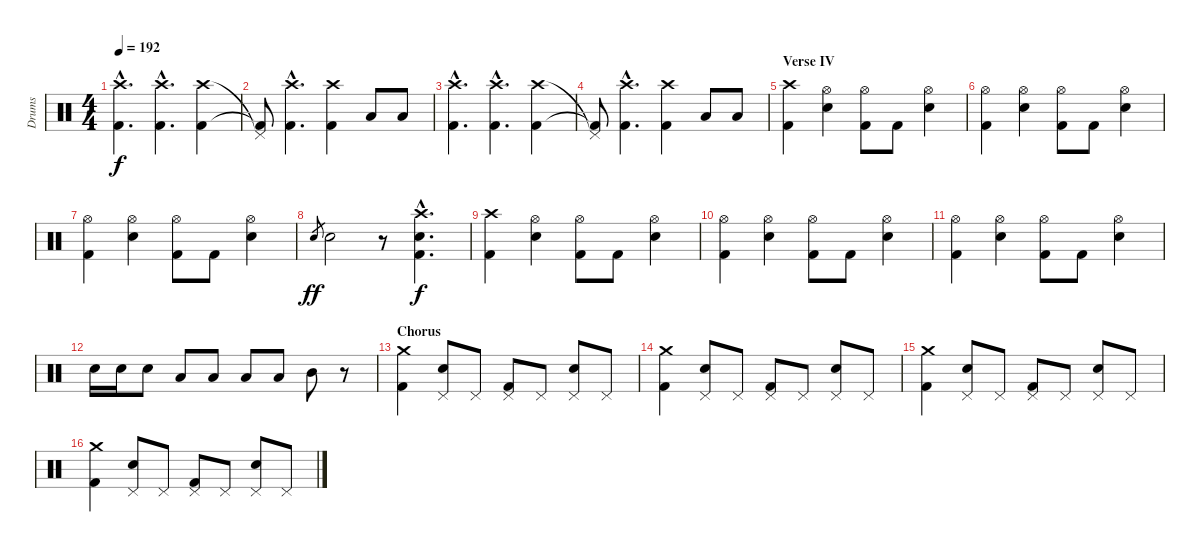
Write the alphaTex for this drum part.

\track ("Drums" "Drums") {instrument percussion}
\staff {score}
\articulation defaults
\ts (4 4)
\tempo 192
\clef neutral
\ks c
("Crash high (hit)"{hac} "Kick (hit) 2"{hac}).4{d dy f} ("Crash high (hit)"{hac} "Kick (hit) 2"{hac}).4{d} ("Crash high (hit)" "Kick (hit) 2").4 |
("Pedal Hi-Hat (hit)"{t} "Kick (hit) 2"{t}).8 ("Crash high (hit)"{hac} "Kick (hit) 2"{hac}).4{d} ("Crash high (hit)" "Kick (hit) 2").4 "Low Tom (hit)".8 "Low Tom (hit)".8 |
("Crash high (hit)"{hac} "Kick (hit) 2"{hac}).4{d} ("Crash high (hit)"{hac} "Kick (hit) 2"{hac}).4{d} ("Crash high (hit)" "Kick (hit) 2").4 |
("Pedal Hi-Hat (hit)"{t} "Kick (hit) 2"{t}).8 ("Crash high (hit)"{hac} "Kick (hit) 2"{hac}).4{d} ("Crash high (hit)" "Kick (hit) 2").4 "Low Tom (hit)".8 "Low Tom (hit)".8 |
\section ("" "Verse IV")
("Crash high (hit)" "Kick (hit) 2").4 ("Hi-Hat (open)" "Electric Snare (hit)").4 ("Hi-Hat (open)" "Kick (hit) 2").8 "Kick (hit) 2".8 ("Hi-Hat (open)" "Electric Snare (hit)").4 |
("Hi-Hat (open)" "Kick (hit) 2").4 ("Hi-Hat (open)" "Electric Snare (hit)").4 ("Hi-Hat (open)" "Kick (hit) 2").8 "Kick (hit) 2".8 ("Hi-Hat (open)" "Electric Snare (hit)").4 |
("Hi-Hat (open)" "Kick (hit) 2").4 ("Hi-Hat (open)" "Electric Snare (hit)").4 ("Hi-Hat (open)" "Kick (hit) 2").8 "Kick (hit) 2".8 ("Hi-Hat (open)" "Electric Snare (hit)").4 |
"Electric Snare (hit)".8{gr dy ff} "Electric Snare (hit)".2 r.8 ("Crash high (hit)"{hac} "Electric Snare (hit)"{hac} "Kick (hit) 2"{hac}).4{d dy f} |
("Crash high (hit)" "Kick (hit) 2").4 ("Hi-Hat (open)" "Electric Snare (hit)").4 ("Hi-Hat (open)" "Kick (hit) 2").8 "Kick (hit) 2".8 ("Hi-Hat (open)" "Electric Snare (hit)").4 |
("Hi-Hat (open)" "Kick (hit) 2").4 ("Hi-Hat (open)" "Electric Snare (hit)").4 ("Hi-Hat (open)" "Kick (hit) 2").8 "Kick (hit) 2".8 ("Hi-Hat (open)" "Electric Snare (hit)").4 |
("Hi-Hat (open)" "Kick (hit) 2").4 ("Hi-Hat (open)" "Electric Snare (hit)").4 ("Hi-Hat (open)" "Kick (hit) 2").8 "Kick (hit) 2".8 ("Hi-Hat (open)" "Electric Snare (hit)").4 |
"Electric Snare (hit)".16 "Electric Snare (hit)".16 "Electric Snare (hit)".8 "Low Tom (hit)".8 "Low Tom (hit)".8 "Low Tom (hit)".8 "Low Tom (hit)".8 "Mid Tom (hit)".8 r.8 |
\section ("" "Chorus")
("Crash medium (hit)" "Kick (hit) 2").4 ("Pedal Hi-Hat (hit)" "Electric Snare (hit)").8 "Pedal Hi-Hat (hit)".8 ("Pedal Hi-Hat (hit)" "Kick (hit) 2").8 "Pedal Hi-Hat (hit)".8 ("Pedal Hi-Hat (hit)" "Electric Snare (hit)").8 "Pedal Hi-Hat (hit)".8 |
("Crash medium (hit)" "Kick (hit) 2").4 ("Pedal Hi-Hat (hit)" "Electric Snare (hit)").8 "Pedal Hi-Hat (hit)".8 ("Pedal Hi-Hat (hit)" "Kick (hit) 2").8 "Pedal Hi-Hat (hit)".8 ("Pedal Hi-Hat (hit)" "Electric Snare (hit)").8 "Pedal Hi-Hat (hit)".8 |
("Crash medium (hit)" "Kick (hit) 2").4 ("Pedal Hi-Hat (hit)" "Electric Snare (hit)").8 "Pedal Hi-Hat (hit)".8 ("Pedal Hi-Hat (hit)" "Kick (hit) 2").8 "Pedal Hi-Hat (hit)".8 ("Pedal Hi-Hat (hit)" "Electric Snare (hit)").8 "Pedal Hi-Hat (hit)".8 |
("Crash medium (hit)" "Kick (hit) 2").4 ("Pedal Hi-Hat (hit)" "Electric Snare (hit)").8 "Pedal Hi-Hat (hit)".8 ("Pedal Hi-Hat (hit)" "Kick (hit) 2").8 "Pedal Hi-Hat (hit)".8 ("Pedal Hi-Hat (hit)" "Electric Snare (hit)").8 "Pedal Hi-Hat (hit)".8
